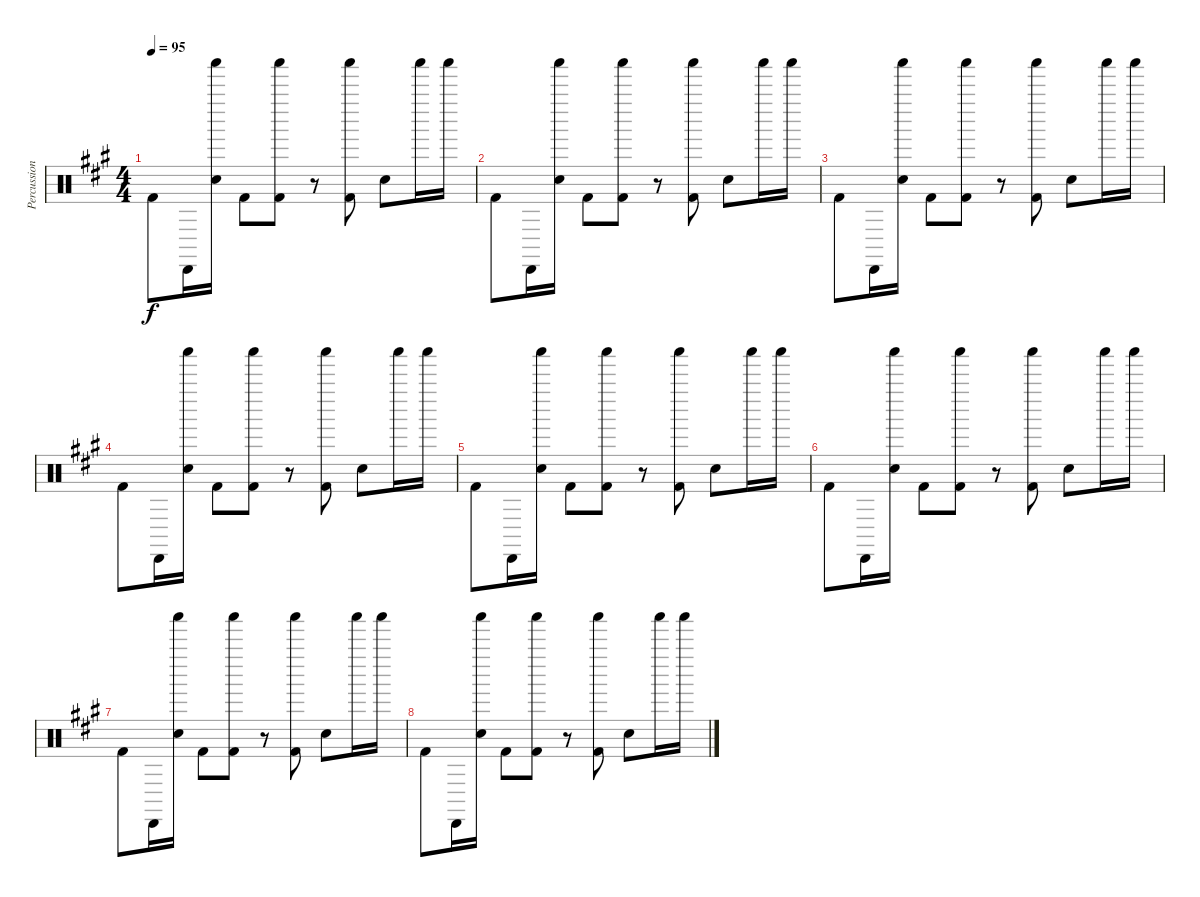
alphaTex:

\track ("Percussions" "Percussion") {instrument percussion}
\staff {score}
\articulation defaults
\ts (4 4)
\tempo 95
\clef neutral
\ks a "Kick (hit) 2".8{dy f} "Cabasa (hit)".16
("Hand Clap (hit)" "Shaker (hit)").16 "Kick (hit) 2".8 ("Kick (hit) 2" "Shaker (hit)").8 r.8 ("Kick (hit) 2" "Shaker (hit)").8 "Hand Clap (hit)".8 "Shaker (hit)".16 "Shaker (hit)".16 |
"Kick (hit) 2".8 "Cabasa (hit)".16 ("Hand Clap (hit)" "Shaker (hit)").16 "Kick (hit) 2".8 ("Kick (hit) 2" "Shaker (hit)").8 r.8 ("Kick (hit) 2" "Shaker (hit)").8 "Hand Clap (hit)".8 "Shaker (hit)".16 "Shaker (hit)".16 |
"Kick (hit) 2".8 "Cabasa (hit)".16 ("Hand Clap (hit)" "Shaker (hit)").16 "Kick (hit) 2".8 ("Kick (hit) 2" "Shaker (hit)").8 r.8 ("Kick (hit) 2" "Shaker (hit)").8 "Hand Clap (hit)".8 "Shaker (hit)".16 "Shaker (hit)".16 |
"Kick (hit) 2".8 "Cabasa (hit)".16 ("Hand Clap (hit)" "Shaker (hit)").16 "Kick (hit) 2".8 ("Kick (hit) 2" "Shaker (hit)").8 r.8 ("Kick (hit) 2" "Shaker (hit)").8 "Hand Clap (hit)".8 "Shaker (hit)".16 "Shaker (hit)".16 |
"Kick (hit) 2".8 "Cabasa (hit)".16 ("Hand Clap (hit)" "Shaker (hit)").16 "Kick (hit) 2".8 ("Kick (hit) 2" "Shaker (hit)").8 r.8 ("Kick (hit) 2" "Shaker (hit)").8 "Hand Clap (hit)".8 "Shaker (hit)".16 "Shaker (hit)".16 |
"Kick (hit) 2".8 "Cabasa (hit)".16 ("Hand Clap (hit)" "Shaker (hit)").16 "Kick (hit) 2".8 ("Kick (hit) 2" "Shaker (hit)").8 r.8 ("Kick (hit) 2" "Shaker (hit)").8 "Hand Clap (hit)".8 "Shaker (hit)".16 "Shaker (hit)".16 |
"Kick (hit) 2".8 "Cabasa (hit)".16 ("Hand Clap (hit)" "Shaker (hit)").16 "Kick (hit) 2".8 ("Kick (hit) 2" "Shaker (hit)").8 r.8 ("Kick (hit) 2" "Shaker (hit)").8 "Hand Clap (hit)".8 "Shaker (hit)".16 "Shaker (hit)".16 |
"Kick (hit) 2".8 "Cabasa (hit)".16 ("Hand Clap (hit)" "Shaker (hit)").16 "Kick (hit) 2".8 ("Kick (hit) 2" "Shaker (hit)").8 r.8 ("Kick (hit) 2" "Shaker (hit)").8 "Hand Clap (hit)".8 "Shaker (hit)".16 "Shaker (hit)".16
